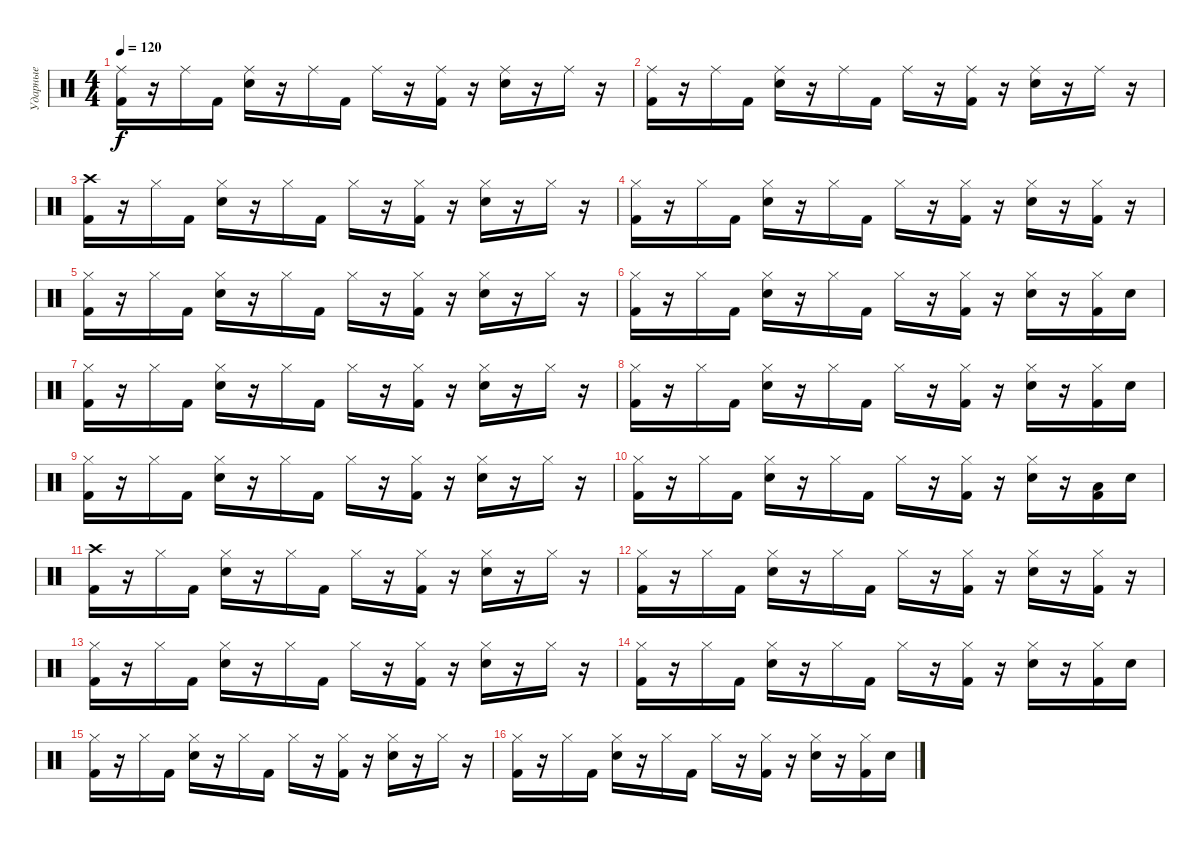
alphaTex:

\track ("Ударные" "Ударные") {instrument percussion}
\staff {score}
\articulation defaults
\ts (4 4)
\tempo 120
\clef neutral
\ks c
("Ride (middle)" "Kick (hit) 2").16{dy f} r.16 "Ride (middle)".16 "Kick (hit) 2".16 ("Ride (middle)" "Electric Snare (hit)").16 r.16 "Ride (middle)".16 "Kick (hit) 2".16 "Ride (middle)".16 r.16 ("Ride (middle)" "Kick (hit) 2").16 r.16 ("Ride (middle)" "Electric Snare (hit)").16 r.16 "Ride (middle)".16 r.16 |
("Ride (middle)" "Kick (hit) 2").16 r.16 "Ride (middle)".16 "Kick (hit) 2".16 ("Ride (middle)" "Electric Snare (hit)").16 r.16 "Ride (middle)".16 "Kick (hit) 2".16 "Ride (middle)".16 r.16 ("Ride (middle)" "Kick (hit) 2").16 r.16 ("Ride (middle)" "Electric Snare (hit)").16 r.16 "Ride (middle)".16 r.16 |
("Crash high (hit)" "Kick (hit) 2").16 r.16 "Hi-Hat (closed)".16 "Kick (hit) 2".16 ("Hi-Hat (closed)" "Electric Snare (hit)").16 r.16 "Hi-Hat (closed)".16 "Kick (hit) 2".16 "Hi-Hat (closed)".16 r.16 ("Hi-Hat (closed)" "Kick (hit) 2").16 r.16 ("Hi-Hat (closed)" "Electric Snare (hit)").16 r.16 "Hi-Hat (closed)".16 r.16 |
("Hi-Hat (closed)" "Kick (hit) 2").16 r.16 "Hi-Hat (closed)".16 "Kick (hit) 2".16 ("Hi-Hat (closed)" "Electric Snare (hit)").16 r.16 "Hi-Hat (closed)".16 "Kick (hit) 2".16 "Hi-Hat (closed)".16 r.16 ("Hi-Hat (closed)" "Kick (hit) 2").16 r.16 ("Hi-Hat (closed)" "Electric Snare (hit)").16 r.16 ("Hi-Hat (closed)" "Kick (hit) 2").16 r.16 |
("Hi-Hat (closed)" "Kick (hit) 2").16 r.16 "Hi-Hat (closed)".16 "Kick (hit) 2".16 ("Hi-Hat (closed)" "Electric Snare (hit)").16 r.16 "Hi-Hat (closed)".16 "Kick (hit) 2".16 "Hi-Hat (closed)".16 r.16 ("Hi-Hat (closed)" "Kick (hit) 2").16 r.16 ("Hi-Hat (closed)" "Electric Snare (hit)").16 r.16 "Hi-Hat (closed)".16 r.16 |
("Hi-Hat (closed)" "Kick (hit) 2").16 r.16 "Hi-Hat (closed)".16 "Kick (hit) 2".16 ("Hi-Hat (closed)" "Electric Snare (hit)").16 r.16 "Hi-Hat (closed)".16 "Kick (hit) 2".16 "Hi-Hat (closed)".16 r.16 ("Hi-Hat (closed)" "Kick (hit) 2").16 r.16 ("Hi-Hat (closed)" "Electric Snare (hit)").16 r.16 ("Hi-Hat (closed)" "Kick (hit) 2").16 "Electric Snare (hit)".16 |
("Hi-Hat (closed)" "Kick (hit) 2").16 r.16 "Hi-Hat (closed)".16 "Kick (hit) 2".16 ("Hi-Hat (closed)" "Electric Snare (hit)").16 r.16 "Hi-Hat (closed)".16 "Kick (hit) 2".16 "Hi-Hat (closed)".16 r.16 ("Hi-Hat (closed)" "Kick (hit) 2").16 r.16 ("Hi-Hat (closed)" "Electric Snare (hit)").16 r.16 "Hi-Hat (closed)".16 r.16 |
("Hi-Hat (closed)" "Kick (hit) 2").16 r.16 "Hi-Hat (closed)".16 "Kick (hit) 2".16 ("Hi-Hat (closed)" "Electric Snare (hit)").16 r.16 "Hi-Hat (closed)".16 "Kick (hit) 2".16 "Hi-Hat (closed)".16 r.16 ("Hi-Hat (closed)" "Kick (hit) 2").16 r.16 ("Hi-Hat (closed)" "Electric Snare (hit)").16 r.16 ("Hi-Hat (closed)" "Kick (hit) 2").16 "Electric Snare (hit)".16 |
("Hi-Hat (closed)" "Kick (hit) 2").16 r.16 "Hi-Hat (closed)".16 "Kick (hit) 2".16 ("Hi-Hat (closed)" "Electric Snare (hit)").16 r.16 "Hi-Hat (closed)".16 "Kick (hit) 2".16 "Hi-Hat (closed)".16 r.16 ("Hi-Hat (closed)" "Kick (hit) 2").16 r.16 ("Hi-Hat (closed)" "Electric Snare (hit)").16 r.16 "Hi-Hat (closed)".16 r.16 |
("Hi-Hat (closed)" "Kick (hit) 2").16 r.16 "Hi-Hat (closed)".16 "Kick (hit) 2".16 ("Hi-Hat (closed)" "Electric Snare (hit)").16 r.16 "Hi-Hat (closed)".16 "Kick (hit) 2".16 "Hi-Hat (closed)".16 r.16 ("Hi-Hat (closed)" "Kick (hit) 2").16 r.16 ("Hi-Hat (closed)" "Electric Snare (hit)").16 r.16 ("Low Floor Tom (hit)" "Kick (hit) 2").16 "Electric Snare (hit)".16 |
("Crash high (hit)" "Kick (hit) 2").16 r.16 "Hi-Hat (closed)".16 "Kick (hit) 2".16 ("Hi-Hat (closed)" "Electric Snare (hit)").16 r.16 "Hi-Hat (closed)".16 "Kick (hit) 2".16 "Hi-Hat (closed)".16 r.16 ("Hi-Hat (closed)" "Kick (hit) 2").16 r.16 ("Hi-Hat (closed)" "Electric Snare (hit)").16 r.16 "Hi-Hat (closed)".16 r.16 |
("Hi-Hat (closed)" "Kick (hit) 2").16 r.16 "Hi-Hat (closed)".16 "Kick (hit) 2".16 ("Hi-Hat (closed)" "Electric Snare (hit)").16 r.16 "Hi-Hat (closed)".16 "Kick (hit) 2".16 "Hi-Hat (closed)".16 r.16 ("Hi-Hat (closed)" "Kick (hit) 2").16 r.16 ("Hi-Hat (closed)" "Electric Snare (hit)").16 r.16 ("Hi-Hat (closed)" "Kick (hit) 2").16 r.16 |
("Hi-Hat (closed)" "Kick (hit) 2").16 r.16 "Hi-Hat (closed)".16 "Kick (hit) 2".16 ("Hi-Hat (closed)" "Electric Snare (hit)").16 r.16 "Hi-Hat (closed)".16 "Kick (hit) 2".16 "Hi-Hat (closed)".16 r.16 ("Hi-Hat (closed)" "Kick (hit) 2").16 r.16 ("Hi-Hat (closed)" "Electric Snare (hit)").16 r.16 "Hi-Hat (closed)".16 r.16 |
("Hi-Hat (closed)" "Kick (hit) 2").16 r.16 "Hi-Hat (closed)".16 "Kick (hit) 2".16 ("Hi-Hat (closed)" "Electric Snare (hit)").16 r.16 "Hi-Hat (closed)".16 "Kick (hit) 2".16 "Hi-Hat (closed)".16 r.16 ("Hi-Hat (closed)" "Kick (hit) 2").16 r.16 ("Hi-Hat (closed)" "Electric Snare (hit)").16 r.16 ("Hi-Hat (closed)" "Kick (hit) 2").16 "Electric Snare (hit)".16 |
("Hi-Hat (closed)" "Kick (hit) 2").16 r.16 "Hi-Hat (closed)".16 "Kick (hit) 2".16 ("Hi-Hat (closed)" "Electric Snare (hit)").16 r.16 "Hi-Hat (closed)".16 "Kick (hit) 2".16 "Hi-Hat (closed)".16 r.16 ("Hi-Hat (closed)" "Kick (hit) 2").16 r.16 ("Hi-Hat (closed)" "Electric Snare (hit)").16 r.16 "Hi-Hat (closed)".16 r.16 |
("Hi-Hat (closed)" "Kick (hit) 2").16 r.16 "Hi-Hat (closed)".16 "Kick (hit) 2".16 ("Hi-Hat (closed)" "Electric Snare (hit)").16 r.16 "Hi-Hat (closed)".16 "Kick (hit) 2".16 "Hi-Hat (closed)".16 r.16 ("Hi-Hat (closed)" "Kick (hit) 2").16 r.16 ("Hi-Hat (closed)" "Electric Snare (hit)").16 r.16 ("Hi-Hat (closed)" "Kick (hit) 2").16 "Electric Snare (hit)".16
